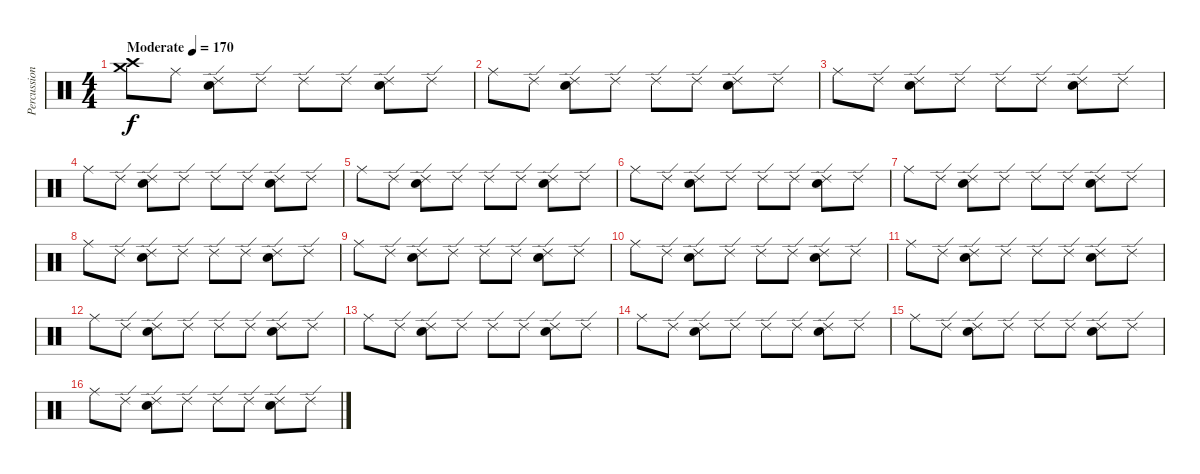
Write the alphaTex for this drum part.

\track ("Percussion" "Percussion") {instrument percussion}
\staff {score}
\articulation defaults
\ts (4 4)
\tempo (170 "Moderate")
\clef neutral
\ks c
("Crash medium (hit)" "Crash high (hit)").8{dy f} "Ride (middle)".8 ("Ride (edge) 2" "Electric Snare (hit)").8 "Ride (edge) 2".8 "Ride (edge) 2".8 "Ride (edge) 2".8 ("Ride (edge) 2" "Electric Snare (hit)").8 "Ride (edge) 2".8 |
"Ride (middle)".8 "Ride (edge) 2".8 ("Ride (edge) 2" "Electric Snare (hit)").8 "Ride (edge) 2".8 "Ride (edge) 2".8 "Ride (edge) 2".8 ("Ride (edge) 2" "Electric Snare (hit)").8 "Ride (edge) 2".8 |
"Ride (middle)".8 "Ride (edge) 2".8 ("Ride (edge) 2" "Electric Snare (hit)").8 "Ride (edge) 2".8 "Ride (edge) 2".8 "Ride (edge) 2".8 ("Ride (edge) 2" "Electric Snare (hit)").8 "Ride (edge) 2".8 |
"Ride (middle)".8 "Ride (edge) 2".8 ("Ride (edge) 2" "Electric Snare (hit)").8 "Ride (edge) 2".8 "Ride (edge) 2".8 "Ride (edge) 2".8 ("Ride (edge) 2" "Electric Snare (hit)").8 "Ride (edge) 2".8 |
"Ride (middle)".8 "Ride (edge) 2".8 ("Ride (edge) 2" "Electric Snare (hit)").8 "Ride (edge) 2".8 "Ride (edge) 2".8 "Ride (edge) 2".8 ("Ride (edge) 2" "Electric Snare (hit)").8 "Ride (edge) 2".8 |
"Ride (middle)".8 "Ride (edge) 2".8 ("Ride (edge) 2" "Electric Snare (hit)").8 "Ride (edge) 2".8 "Ride (edge) 2".8 "Ride (edge) 2".8 ("Ride (edge) 2" "Electric Snare (hit)").8 "Ride (edge) 2".8 |
"Ride (middle)".8 "Ride (edge) 2".8 ("Ride (edge) 2" "Electric Snare (hit)").8 "Ride (edge) 2".8 "Ride (edge) 2".8 "Ride (edge) 2".8 ("Ride (edge) 2" "Electric Snare (hit)").8 "Ride (edge) 2".8 |
"Ride (middle)".8 "Ride (edge) 2".8 ("Ride (edge) 2" "Electric Snare (hit)").8 "Ride (edge) 2".8 "Ride (edge) 2".8 "Ride (edge) 2".8 ("Ride (edge) 2" "Electric Snare (hit)").8 "Ride (edge) 2".8 |
"Ride (middle)".8 "Ride (edge) 2".8 ("Ride (edge) 2" "Electric Snare (hit)").8 "Ride (edge) 2".8 "Ride (edge) 2".8 "Ride (edge) 2".8 ("Ride (edge) 2" "Electric Snare (hit)").8 "Ride (edge) 2".8 |
"Ride (middle)".8 "Ride (edge) 2".8 ("Ride (edge) 2" "Electric Snare (hit)").8 "Ride (edge) 2".8 "Ride (edge) 2".8 "Ride (edge) 2".8 ("Ride (edge) 2" "Electric Snare (hit)").8 "Ride (edge) 2".8 |
"Ride (middle)".8 "Ride (edge) 2".8 ("Ride (edge) 2" "Electric Snare (hit)").8 "Ride (edge) 2".8 "Ride (edge) 2".8 "Ride (edge) 2".8 ("Ride (edge) 2" "Electric Snare (hit)").8 "Ride (edge) 2".8 |
"Ride (middle)".8 "Ride (edge) 2".8 ("Ride (edge) 2" "Electric Snare (hit)").8 "Ride (edge) 2".8 "Ride (edge) 2".8 "Ride (edge) 2".8 ("Ride (edge) 2" "Electric Snare (hit)").8 "Ride (edge) 2".8 |
"Ride (middle)".8 "Ride (edge) 2".8 ("Ride (edge) 2" "Electric Snare (hit)").8 "Ride (edge) 2".8 "Ride (edge) 2".8 "Ride (edge) 2".8 ("Ride (edge) 2" "Electric Snare (hit)").8 "Ride (edge) 2".8 |
"Ride (middle)".8 "Ride (edge) 2".8 ("Ride (edge) 2" "Electric Snare (hit)").8 "Ride (edge) 2".8 "Ride (edge) 2".8 "Ride (edge) 2".8 ("Ride (edge) 2" "Electric Snare (hit)").8 "Ride (edge) 2".8 |
"Ride (middle)".8 "Ride (edge) 2".8 ("Ride (edge) 2" "Electric Snare (hit)").8 "Ride (edge) 2".8 "Ride (edge) 2".8 "Ride (edge) 2".8 ("Ride (edge) 2" "Electric Snare (hit)").8 "Ride (edge) 2".8 |
"Ride (middle)".8 "Ride (edge) 2".8 ("Ride (edge) 2" "Electric Snare (hit)").8 "Ride (edge) 2".8 "Ride (edge) 2".8 "Ride (edge) 2".8 ("Ride (edge) 2" "Electric Snare (hit)").8 "Ride (edge) 2".8
